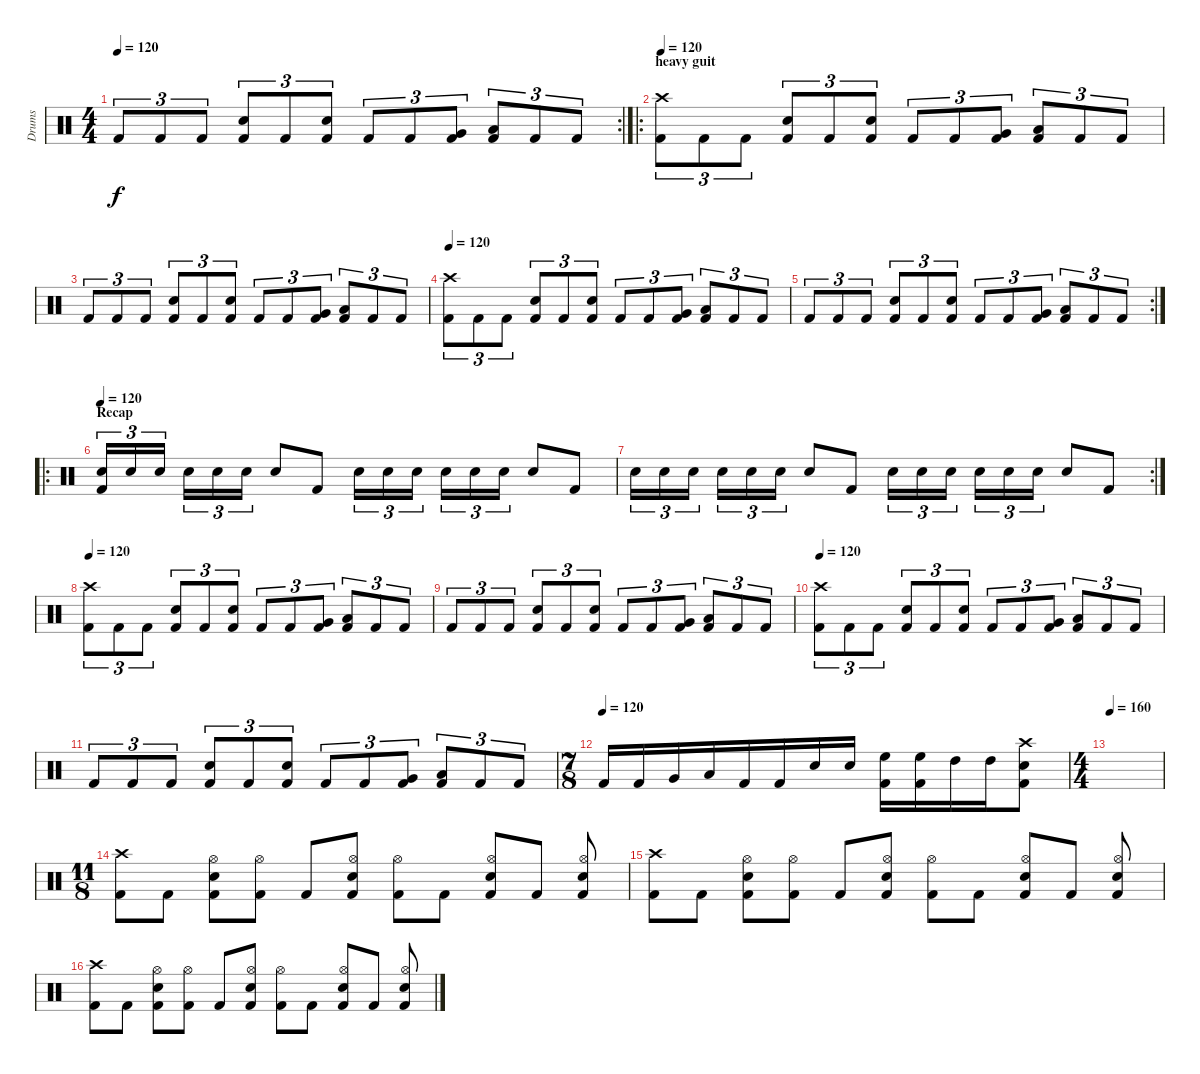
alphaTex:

\track ("Drums" "Drums") {instrument percussion}
\staff {score}
\articulation defaults
\rc 2
\ts (4 4)
\tempo 120
\clef neutral
\ks c "Kick (hit) 2".8{tu (3 2) dy f} "Kick (hit) 2".8{tu (3 2)} "Kick (hit) 2".8{tu (3 2)}
("Kick (hit) 2" "Electric Snare (hit)").8{tu (3 2)} "Kick (hit) 2".8{tu (3 2)} ("Kick (hit) 2" "Electric Snare (hit)").8{tu (3 2)} "Kick (hit) 2".8{tu (3 2)} "Kick (hit) 2".8{tu (3 2)} ("Kick (hit) 2" "Very Low Tom (hit)").8{tu (3 2)} ("Kick (hit) 2" "Low Tom (hit)").8{tu (3 2)} "Kick (hit) 2".8{tu (3 2)} "Kick (hit) 2".8{tu (3 2)} |
\ro
\section ("" "heavy guit")
\tempo 120
("Kick (hit) 2" "Crash high (hit)").8{tu (3 2)} "Kick (hit) 2".8{tu (3 2)} "Kick (hit) 2".8{tu (3 2)} ("Kick (hit) 2" "Electric Snare (hit)").8{tu (3 2)} "Kick (hit) 2".8{tu (3 2)} ("Kick (hit) 2" "Electric Snare (hit)").8{tu (3 2)} "Kick (hit) 2".8{tu (3 2)} "Kick (hit) 2".8{tu (3 2)} ("Kick (hit) 2" "Very Low Tom (hit)").8{tu (3 2)} ("Kick (hit) 2" "Low Tom (hit)").8{tu (3 2)} "Kick (hit) 2".8{tu (3 2)} "Kick (hit) 2".8{tu (3 2)} |
"Kick (hit) 2".8{tu (3 2)} "Kick (hit) 2".8{tu (3 2)} "Kick (hit) 2".8{tu (3 2)} ("Kick (hit) 2" "Electric Snare (hit)").8{tu (3 2)} "Kick (hit) 2".8{tu (3 2)} ("Kick (hit) 2" "Electric Snare (hit)").8{tu (3 2)} "Kick (hit) 2".8{tu (3 2)} "Kick (hit) 2".8{tu (3 2)} ("Kick (hit) 2" "Very Low Tom (hit)").8{tu (3 2)} ("Kick (hit) 2" "Low Tom (hit)").8{tu (3 2)} "Kick (hit) 2".8{tu (3 2)} "Kick (hit) 2".8{tu (3 2)} |
\tempo 120
("Kick (hit) 2" "Crash high (hit)").8{tu (3 2)} "Kick (hit) 2".8{tu (3 2)} "Kick (hit) 2".8{tu (3 2)} ("Kick (hit) 2" "Electric Snare (hit)").8{tu (3 2)} "Kick (hit) 2".8{tu (3 2)} ("Kick (hit) 2" "Electric Snare (hit)").8{tu (3 2)} "Kick (hit) 2".8{tu (3 2)} "Kick (hit) 2".8{tu (3 2)} ("Kick (hit) 2" "Very Low Tom (hit)").8{tu (3 2)} ("Kick (hit) 2" "Low Tom (hit)").8{tu (3 2)} "Kick (hit) 2".8{tu (3 2)} "Kick (hit) 2".8{tu (3 2)} |
\rc 2 "Kick (hit) 2".8{tu (3 2)} "Kick (hit) 2".8{tu (3 2)} "Kick (hit) 2".8{tu (3 2)}
("Kick (hit) 2" "Electric Snare (hit)").8{tu (3 2)} "Kick (hit) 2".8{tu (3 2)} ("Kick (hit) 2" "Electric Snare (hit)").8{tu (3 2)} "Kick (hit) 2".8{tu (3 2)} "Kick (hit) 2".8{tu (3 2)} ("Kick (hit) 2" "Very Low Tom (hit)").8{tu (3 2)} ("Kick (hit) 2" "Low Tom (hit)").8{tu (3 2)} "Kick (hit) 2".8{tu (3 2)} "Kick (hit) 2".8{tu (3 2)} |
\ro
\section ("" "Recap")
\tempo 120
("Kick (hit) 2" "Electric Snare (hit)").16{tu (3 2)} "Electric Snare (hit)".16{tu (3 2)} "Electric Snare (hit)".16{tu (3 2)} "Electric Snare (hit)".16{tu (3 2)} "Electric Snare (hit)".16{tu (3 2)} "Electric Snare (hit)".16{tu (3 2)} "Electric Snare (hit)".8 "Kick (hit) 2".8 "Electric Snare (hit)".16{tu (3 2)} "Electric Snare (hit)".16{tu (3 2)} "Electric Snare (hit)".16{tu (3 2)} "Electric Snare (hit)".16{tu (3 2)} "Electric Snare (hit)".16{tu (3 2)} "Electric Snare (hit)".16{tu (3 2)} "Electric Snare (hit)".8 "Kick (hit) 2".8 |
\rc 2 "Electric Snare (hit)".16{tu (3 2)} "Electric Snare (hit)".16{tu (3 2)} "Electric Snare (hit)".16{tu (3 2)} "Electric Snare (hit)".16{tu (3 2)} "Electric Snare (hit)".16{tu (3 2)} "Electric Snare (hit)".16{tu (3 2)} "Electric Snare (hit)".8 "Kick (hit) 2".8 "Electric Snare (hit)".16{tu (3 2)} "Electric Snare (hit)".16{tu (3 2)} "Electric Snare (hit)".16{tu (3 2)} "Electric Snare (hit)".16{tu (3 2)} "Electric Snare (hit)".16{tu (3 2)} "Electric Snare (hit)".16{tu (3 2)} "Electric Snare (hit)".8 "Kick (hit) 2".8
|
\tempo 120
("Kick (hit) 2" "Crash high (hit)").8{tu (3 2)} "Kick (hit) 2".8{tu (3 2)} "Kick (hit) 2".8{tu (3 2)} ("Kick (hit) 2" "Electric Snare (hit)").8{tu (3 2)} "Kick (hit) 2".8{tu (3 2)} ("Kick (hit) 2" "Electric Snare (hit)").8{tu (3 2)} "Kick (hit) 2".8{tu (3 2)} "Kick (hit) 2".8{tu (3 2)} ("Kick (hit) 2" "Very Low Tom (hit)").8{tu (3 2)} ("Kick (hit) 2" "Low Tom (hit)").8{tu (3 2)} "Kick (hit) 2".8{tu (3 2)} "Kick (hit) 2".8{tu (3 2)} |
"Kick (hit) 2".8{tu (3 2)} "Kick (hit) 2".8{tu (3 2)} "Kick (hit) 2".8{tu (3 2)} ("Kick (hit) 2" "Electric Snare (hit)").8{tu (3 2)} "Kick (hit) 2".8{tu (3 2)} ("Kick (hit) 2" "Electric Snare (hit)").8{tu (3 2)} "Kick (hit) 2".8{tu (3 2)} "Kick (hit) 2".8{tu (3 2)} ("Kick (hit) 2" "Very Low Tom (hit)").8{tu (3 2)} ("Kick (hit) 2" "Low Tom (hit)").8{tu (3 2)} "Kick (hit) 2".8{tu (3 2)} "Kick (hit) 2".8{tu (3 2)} |
\tempo 120
("Kick (hit) 2" "Crash high (hit)").8{tu (3 2)} "Kick (hit) 2".8{tu (3 2)} "Kick (hit) 2".8{tu (3 2)} ("Kick (hit) 2" "Electric Snare (hit)").8{tu (3 2)} "Kick (hit) 2".8{tu (3 2)} ("Kick (hit) 2" "Electric Snare (hit)").8{tu (3 2)} "Kick (hit) 2".8{tu (3 2)} "Kick (hit) 2".8{tu (3 2)} ("Kick (hit) 2" "Very Low Tom (hit)").8{tu (3 2)} ("Kick (hit) 2" "Low Tom (hit)").8{tu (3 2)} "Kick (hit) 2".8{tu (3 2)} "Kick (hit) 2".8{tu (3 2)} |
"Kick (hit) 2".8{tu (3 2)} "Kick (hit) 2".8{tu (3 2)} "Kick (hit) 2".8{tu (3 2)} ("Kick (hit) 2" "Electric Snare (hit)").8{tu (3 2)} "Kick (hit) 2".8{tu (3 2)} ("Kick (hit) 2" "Electric Snare (hit)").8{tu (3 2)} "Kick (hit) 2".8{tu (3 2)} "Kick (hit) 2".8{tu (3 2)} ("Kick (hit) 2" "Very Low Tom (hit)").8{tu (3 2)} ("Kick (hit) 2" "Low Tom (hit)").8{tu (3 2)} "Kick (hit) 2".8{tu (3 2)} "Kick (hit) 2".8{tu (3 2)} |
\ts (7 8)
\tempo (120)
"Kick (hit) 2".16 "Kick (hit) 2".16 "Very Low Tom (hit)".16 "Low Floor Tom (hit)".16 "Kick (hit) 2".16 "Kick (hit) 2".16 "Electric Snare (hit)".16 "Electric Snare (hit)".16 ("High Floor Tom (hit)" "Kick (hit) 2").16 ("High Floor Tom (hit)" "Kick (hit) 2").16 "High Tom (hit)".16 "High Tom (hit)".16 ("Crash high (hit)" "Electric Snare (hit)" "Kick (hit) 2").8 |
\ts (4 4)
\tempo 160
|
\ts (11 8)
("Crash high (hit)" "Kick (hit) 2").8 "Kick (hit) 2".8 ("Hi-Hat (open)" "Snare (hit) 2" "Kick (hit) 2").8 ("Hi-Hat (open)" "Kick (hit) 2").8 "Kick (hit) 2".8 ("Hi-Hat (open)" "Snare (hit) 2" "Kick (hit) 2").8 ("Hi-Hat (open)" "Kick (hit) 2").8 "Kick (hit) 2".8 ("Hi-Hat (open)" "Snare (hit) 2" "Kick (hit) 2").8 "Kick (hit) 2".8 ("Hi-Hat (open)" "Snare (hit) 2" "Kick (hit) 2").8 |
("Crash high (hit)" "Kick (hit) 2").8 "Kick (hit) 2".8 ("Hi-Hat (open)" "Snare (hit) 2" "Kick (hit) 2").8 ("Hi-Hat (open)" "Kick (hit) 2").8 "Kick (hit) 2".8 ("Hi-Hat (open)" "Snare (hit) 2" "Kick (hit) 2").8 ("Hi-Hat (open)" "Kick (hit) 2").8 "Kick (hit) 2".8 ("Hi-Hat (open)" "Snare (hit) 2" "Kick (hit) 2").8 "Kick (hit) 2".8 ("Hi-Hat (open)" "Snare (hit) 2" "Kick (hit) 2").8 |
("Crash high (hit)" "Kick (hit) 2").8 "Kick (hit) 2".8 ("Hi-Hat (open)" "Snare (hit) 2" "Kick (hit) 2").8 ("Hi-Hat (open)" "Kick (hit) 2").8 "Kick (hit) 2".8 ("Hi-Hat (open)" "Snare (hit) 2" "Kick (hit) 2").8 ("Hi-Hat (open)" "Kick (hit) 2").8 "Kick (hit) 2".8 ("Hi-Hat (open)" "Snare (hit) 2" "Kick (hit) 2").8 "Kick (hit) 2".8 ("Hi-Hat (open)" "Snare (hit) 2" "Kick (hit) 2").8
